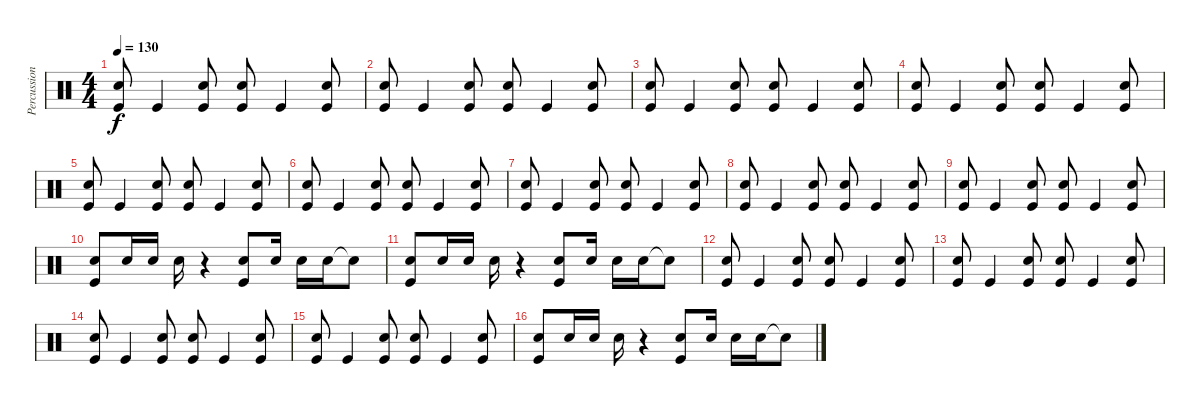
\track ("Percussion" "Percussion") {instrument percussion}
\staff {score}
\articulation defaults
\ts (4 4)
\tempo 130
\clef neutral
\ks c
("Kick (hit)" "Snare (hit) 2").8{dy f} "Kick (hit)".4 ("Kick (hit)" "Snare (hit) 2").8 ("Kick (hit)" "Snare (hit) 2").8 "Kick (hit)".4 ("Kick (hit)" "Snare (hit) 2").8 |
("Kick (hit)" "Snare (hit) 2").8 "Kick (hit)".4 ("Kick (hit)" "Snare (hit) 2").8 ("Kick (hit)" "Snare (hit) 2").8 "Kick (hit)".4 ("Kick (hit)" "Snare (hit) 2").8 |
("Kick (hit)" "Snare (hit) 2").8 "Kick (hit)".4 ("Kick (hit)" "Snare (hit) 2").8 ("Kick (hit)" "Snare (hit) 2").8 "Kick (hit)".4 ("Kick (hit)" "Snare (hit) 2").8 |
("Kick (hit)" "Snare (hit) 2").8 "Kick (hit)".4 ("Kick (hit)" "Snare (hit) 2").8 ("Kick (hit)" "Snare (hit) 2").8 "Kick (hit)".4 ("Kick (hit)" "Snare (hit) 2").8 |
("Kick (hit)" "Snare (hit) 2").8 "Kick (hit)".4 ("Kick (hit)" "Snare (hit) 2").8 ("Kick (hit)" "Snare (hit) 2").8 "Kick (hit)".4 ("Kick (hit)" "Snare (hit) 2").8 |
("Kick (hit)" "Snare (hit) 2").8 "Kick (hit)".4 ("Kick (hit)" "Snare (hit) 2").8 ("Kick (hit)" "Snare (hit) 2").8 "Kick (hit)".4 ("Kick (hit)" "Snare (hit) 2").8 |
("Kick (hit)" "Snare (hit) 2").8 "Kick (hit)".4 ("Kick (hit)" "Snare (hit) 2").8 ("Kick (hit)" "Snare (hit) 2").8 "Kick (hit)".4 ("Kick (hit)" "Snare (hit) 2").8 |
("Kick (hit)" "Snare (hit) 2").8 "Kick (hit)".4 ("Kick (hit)" "Snare (hit) 2").8 ("Kick (hit)" "Snare (hit) 2").8 "Kick (hit)".4 ("Kick (hit)" "Snare (hit) 2").8 |
("Kick (hit)" "Snare (hit) 2").8 "Kick (hit)".4 ("Kick (hit)" "Snare (hit) 2").8 ("Kick (hit)" "Snare (hit) 2").8 "Kick (hit)".4 ("Kick (hit)" "Snare (hit) 2").8 |
("Kick (hit)" "Snare (hit) 2").8 "Snare (hit) 2".16 "Snare (hit) 2".16 "Snare (hit) 2".16 r.4 ("Kick (hit)" "Snare (hit) 2").8 "Snare (hit) 2".16 "Snare (hit) 2".16 "Snare (hit) 2".16 "Snare (hit)"{t}.8 |
("Kick (hit)" "Snare (hit) 2").8 "Snare (hit) 2".16 "Snare (hit) 2".16 "Snare (hit) 2".16 r.4 ("Kick (hit)" "Snare (hit) 2").8 "Snare (hit) 2".16 "Snare (hit) 2".16 "Snare (hit) 2".16 "Snare (hit)"{t}.8 |
("Kick (hit)" "Snare (hit) 2").8 "Kick (hit)".4 ("Kick (hit)" "Snare (hit) 2").8 ("Kick (hit)" "Snare (hit) 2").8 "Kick (hit)".4 ("Kick (hit)" "Snare (hit) 2").8 |
("Kick (hit)" "Snare (hit) 2").8 "Kick (hit)".4 ("Kick (hit)" "Snare (hit) 2").8 ("Kick (hit)" "Snare (hit) 2").8 "Kick (hit)".4 ("Kick (hit)" "Snare (hit) 2").8 |
("Kick (hit)" "Snare (hit) 2").8 "Kick (hit)".4 ("Kick (hit)" "Snare (hit) 2").8 ("Kick (hit)" "Snare (hit) 2").8 "Kick (hit)".4 ("Kick (hit)" "Snare (hit) 2").8 |
("Kick (hit)" "Snare (hit) 2").8 "Kick (hit)".4 ("Kick (hit)" "Snare (hit) 2").8 ("Kick (hit)" "Snare (hit) 2").8 "Kick (hit)".4 ("Kick (hit)" "Snare (hit) 2").8 |
("Kick (hit)" "Snare (hit) 2").8 "Snare (hit) 2".16 "Snare (hit) 2".16 "Snare (hit) 2".16 r.4 ("Kick (hit)" "Snare (hit) 2").8 "Snare (hit) 2".16 "Snare (hit) 2".16 "Snare (hit) 2".16 "Snare (hit)"{t}.8
